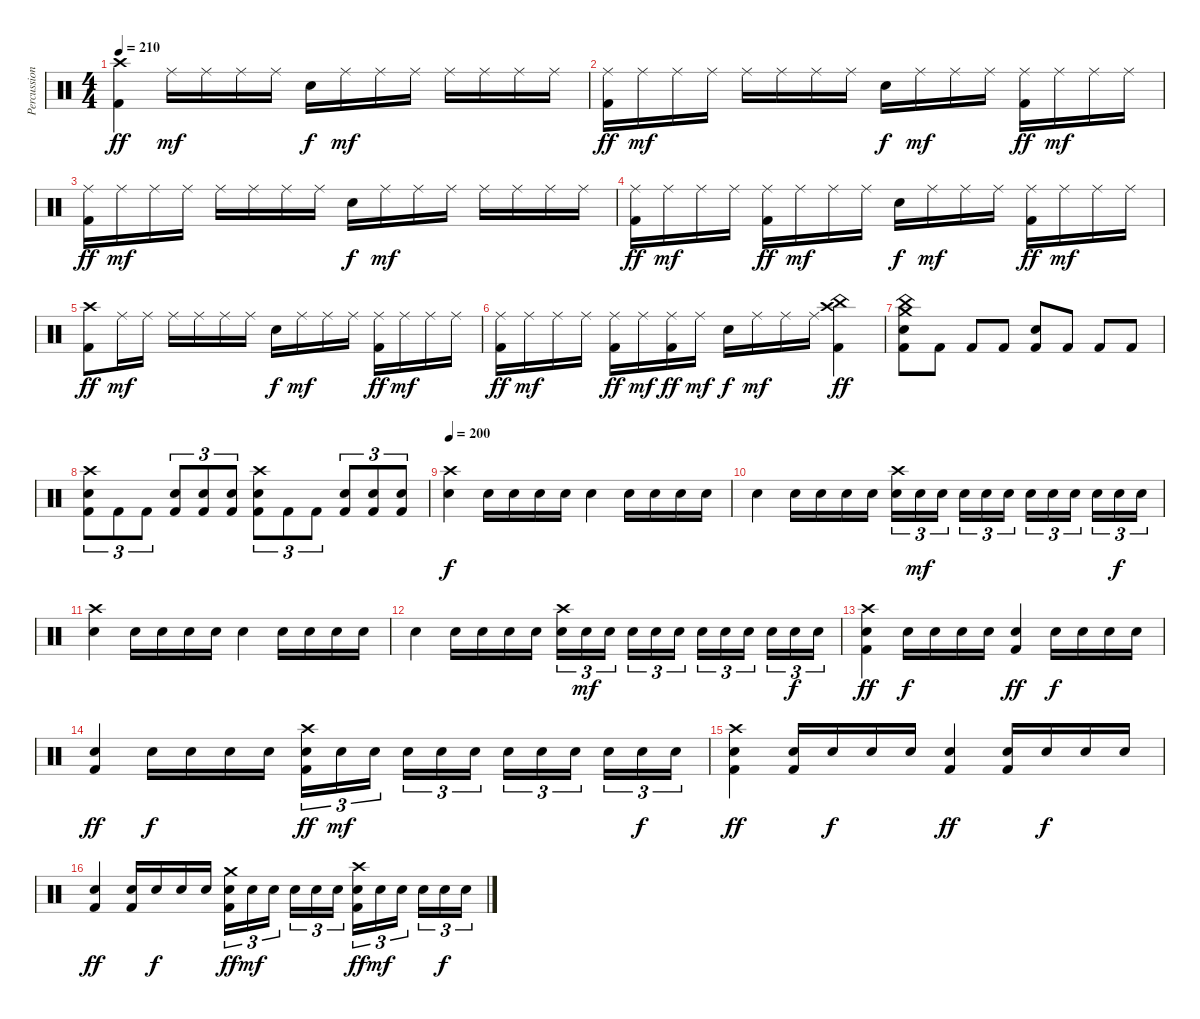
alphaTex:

\track ("Percussion" "Percussion") {instrument percussion}
\staff {score}
\articulation defaults
\ts (4 4)
\tempo 210
\clef neutral
\ks c
("Crash high (hit)" "Kick (hit) 2").4{dy ff} "Ride (middle)".16{dy mf} "Ride (middle)".16 "Ride (middle)".16 "Ride (middle)".16 "Snare (hit) 2".16{dy f} "Ride (middle)".16{dy mf} "Ride (middle)".16 "Ride (middle)".16 "Ride (middle)".16 "Ride (middle)".16 "Ride (middle)".16 "Ride (middle)".16 |
("Ride (middle)" "Kick (hit) 2").16{dy ff} "Ride (middle)".16{dy mf} "Ride (middle)".16 "Ride (middle)".16 "Ride (middle)".16 "Ride (middle)".16 "Ride (middle)".16 "Ride (middle)".16 "Snare (hit) 2".16{dy f} "Ride (middle)".16{dy mf} "Ride (middle)".16 "Ride (middle)".16 ("Ride (middle)" "Kick (hit) 2").16{dy ff} "Ride (middle)".16{dy mf} "Ride (middle)".16 "Ride (middle)".16 |
("Ride (middle)" "Kick (hit) 2").16{dy ff} "Ride (middle)".16{dy mf} "Ride (middle)".16 "Ride (middle)".16 "Ride (middle)".16 "Ride (middle)".16 "Ride (middle)".16 "Ride (middle)".16 "Snare (hit) 2".16{dy f} "Ride (middle)".16{dy mf} "Ride (middle)".16 "Ride (middle)".16 "Ride (middle)".16 "Ride (middle)".16 "Ride (middle)".16 "Ride (middle)".16 |
("Ride (middle)" "Kick (hit) 2").16{dy ff} "Ride (middle)".16{dy mf} "Ride (middle)".16 "Ride (middle)".16 ("Ride (middle)" "Kick (hit) 2").16{dy ff} "Ride (middle)".16{dy mf} "Ride (middle)".16 "Ride (middle)".16 "Snare (hit) 2".16{dy f} "Ride (middle)".16{dy mf} "Ride (middle)".16 "Ride (middle)".16 ("Ride (middle)" "Kick (hit) 2").16{dy ff} "Ride (middle)".16{dy mf} "Ride (middle)".16 "Ride (middle)".16 |
("Crash high (hit)" "Kick (hit) 2").8{dy ff} "Ride (middle)".16{dy mf} "Ride (middle)".16 "Ride (middle)".16 "Ride (middle)".16 "Ride (middle)".16 "Ride (middle)".16 "Snare (hit) 2".16{dy f} "Ride (middle)".16{dy mf} "Ride (middle)".16 "Ride (middle)".16 ("Ride (middle)" "Kick (hit) 2").16{dy ff} "Ride (middle)".16{dy mf} "Ride (middle)".16 "Ride (middle)".16 |
("Ride (middle)" "Kick (hit) 2").16{dy ff} "Ride (middle)".16{dy mf} "Ride (middle)".16 "Ride (middle)".16 ("Ride (middle)" "Kick (hit) 2").16{dy ff} "Ride (middle)".16{dy mf} ("Ride (middle)" "Kick (hit) 2").16{dy ff} "Ride (middle)".16{dy mf} "Snare (hit) 2".16{dy f} "Ride (middle)".16{dy mf} "Ride (middle)".16 "Ride (middle)".16 ("Crash high (hit)" "China (hit)" "Kick (hit) 2").4{dy ff} |
("Crash medium (hit)" "China (hit)" "Snare (hit) 2" "Kick (hit) 2").8 "Kick (hit) 2".8 "Kick (hit) 2".8 "Kick (hit) 2".8 ("Snare (hit) 2" "Kick (hit) 2").8 "Kick (hit) 2".8 "Kick (hit) 2".8 "Kick (hit) 2".8 |
("Crash high (hit)" "Snare (hit) 2" "Kick (hit) 2").8{tu (3 2)} "Kick (hit) 2".8{tu (3 2)} "Kick (hit) 2".8{tu (3 2)} ("Snare (hit) 2" "Kick (hit) 2").8{tu (3 2)} ("Snare (hit) 2" "Kick (hit) 2").8{tu (3 2)} ("Snare (hit) 2" "Kick (hit) 2").8{tu (3 2)} ("Crash high (hit)" "Snare (hit) 2" "Kick (hit) 2").8{tu (3 2)} "Kick (hit) 2".8{tu (3 2)} "Kick (hit) 2".8{tu (3 2)} ("Snare (hit) 2" "Kick (hit) 2").8{tu (3 2)} ("Snare (hit) 2" "Kick (hit) 2").8{tu (3 2)} ("Snare (hit) 2" "Kick (hit) 2").8{tu (3 2)} |
\section ("" "")
\tempo 200
("Crash high (hit)" "Snare (hit) 2").4{dy f} "Snare (hit) 2".16 "Snare (hit) 2".16 "Snare (hit) 2".16 "Snare (hit) 2".16 "Snare (hit) 2".4 "Snare (hit) 2".16 "Snare (hit) 2".16 "Snare (hit) 2".16 "Snare (hit) 2".16 |
"Snare (hit) 2".4 "Snare (hit) 2".16 "Snare (hit) 2".16 "Snare (hit) 2".16 "Snare (hit) 2".16 ("Crash high (hit)" "Snare (hit) 2").16{tu (3 2)} "Snare (hit) 2".16{tu (3 2) dy mf} "Snare (hit) 2".16{tu (3 2)} "Snare (hit) 2".16{tu (3 2)} "Snare (hit) 2".16{tu (3 2)} "Snare (hit) 2".16{tu (3 2)} "Snare (hit) 2".16{tu (3 2)} "Snare (hit) 2".16{tu (3 2)} "Snare (hit) 2".16{tu (3 2)} "Snare (hit) 2".16{tu (3 2)} "Snare (hit) 2".16{tu (3 2) dy f} "Snare (hit) 2".16{tu (3 2)} |
("Crash high (hit)" "Snare (hit) 2").4 "Snare (hit) 2".16 "Snare (hit) 2".16 "Snare (hit) 2".16 "Snare (hit) 2".16 "Snare (hit) 2".4 "Snare (hit) 2".16 "Snare (hit) 2".16 "Snare (hit) 2".16 "Snare (hit) 2".16 |
"Snare (hit) 2".4 "Snare (hit) 2".16 "Snare (hit) 2".16 "Snare (hit) 2".16 "Snare (hit) 2".16 ("Crash high (hit)" "Snare (hit) 2").16{tu (3 2)} "Snare (hit) 2".16{tu (3 2) dy mf} "Snare (hit) 2".16{tu (3 2)} "Snare (hit) 2".16{tu (3 2)} "Snare (hit) 2".16{tu (3 2)} "Snare (hit) 2".16{tu (3 2)} "Snare (hit) 2".16{tu (3 2)} "Snare (hit) 2".16{tu (3 2)} "Snare (hit) 2".16{tu (3 2)} "Snare (hit) 2".16{tu (3 2)} "Snare (hit) 2".16{tu (3 2) dy f} "Snare (hit) 2".16{tu (3 2)} |
("Crash high (hit)" "Snare (hit) 2" "Kick (hit) 2").4{dy ff} "Snare (hit) 2".16{dy f} "Snare (hit) 2".16 "Snare (hit) 2".16 "Snare (hit) 2".16 ("Snare (hit) 2" "Kick (hit) 2").4{dy ff} "Snare (hit) 2".16{dy f} "Snare (hit) 2".16 "Snare (hit) 2".16 "Snare (hit) 2".16 |
("Snare (hit) 2" "Kick (hit) 2").4{dy ff} "Snare (hit) 2".16{dy f} "Snare (hit) 2".16 "Snare (hit) 2".16 "Snare (hit) 2".16 ("Crash high (hit)" "Snare (hit) 2" "Kick (hit) 2").16{tu (3 2) dy ff} "Snare (hit) 2".16{tu (3 2) dy mf} "Snare (hit) 2".16{tu (3 2)} "Snare (hit) 2".16{tu (3 2)} "Snare (hit) 2".16{tu (3 2)} "Snare (hit) 2".16{tu (3 2)} "Snare (hit) 2".16{tu (3 2)} "Snare (hit) 2".16{tu (3 2)} "Snare (hit) 2".16{tu (3 2)} "Snare (hit) 2".16{tu (3 2)} "Snare (hit) 2".16{tu (3 2) dy f} "Snare (hit) 2".16{tu (3 2)} |
("Crash high (hit)" "Snare (hit) 2" "Kick (hit) 2").4{dy ff} ("Snare (hit) 2" "Kick (hit) 2").16 "Snare (hit) 2".16{dy f} "Snare (hit) 2".16 "Snare (hit) 2".16 ("Snare (hit) 2" "Kick (hit) 2").4{dy ff} ("Snare (hit) 2" "Kick (hit) 2").16 "Snare (hit) 2".16{dy f} "Snare (hit) 2".16 "Snare (hit) 2".16 |
("Snare (hit) 2" "Kick (hit) 2").4{dy ff} ("Snare (hit) 2" "Kick (hit) 2").16 "Snare (hit) 2".16{dy f} "Snare (hit) 2".16 "Snare (hit) 2".16 ("Crash medium (hit)" "Snare (hit) 2" "Kick (hit) 2").16{tu (3 2) dy ff} "Snare (hit) 2".16{tu (3 2) dy mf} "Snare (hit) 2".16{tu (3 2)} "Snare (hit) 2".16{tu (3 2)} "Snare (hit) 2".16{tu (3 2)} "Snare (hit) 2".16{tu (3 2)} ("Crash high (hit)" "Snare (hit) 2" "Kick (hit) 2").16{tu (3 2) dy ff} "Snare (hit) 2".16{tu (3 2) dy mf} "Snare (hit) 2".16{tu (3 2)} "Snare (hit) 2".16{tu (3 2)} "Snare (hit) 2".16{tu (3 2) dy f} "Snare (hit) 2".16{tu (3 2)}
